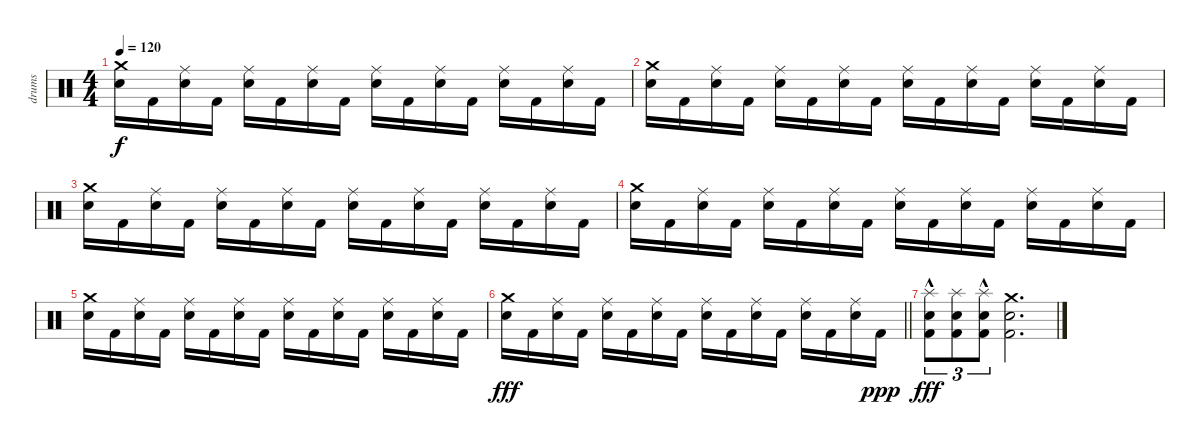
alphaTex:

\track ("drums" "drums") {instrument percussion}
\staff {score}
\articulation defaults
\ts (4 4)
\tempo 120
\clef neutral
\ks c
("Crash medium (hit)" "Snare (hit) 2").16{dy f} "Kick (hit) 2".16 ("Ride (middle)" "Snare (hit) 2").16 "Kick (hit) 2".16 ("Ride (middle)" "Snare (hit) 2").16 "Kick (hit) 2".16 ("Ride (middle)" "Snare (hit) 2").16 "Kick (hit) 2".16 ("Ride (middle)" "Snare (hit) 2").16 "Kick (hit) 2".16 ("Ride (middle)" "Snare (hit) 2").16 "Kick (hit) 2".16 ("Ride (middle)" "Snare (hit) 2").16 "Kick (hit) 2".16 ("Ride (middle)" "Snare (hit) 2").16 "Kick (hit) 2".16 |
("Crash medium (hit)" "Snare (hit) 2").16 "Kick (hit) 2".16 ("Ride (middle)" "Snare (hit) 2").16 "Kick (hit) 2".16 ("Ride (middle)" "Snare (hit) 2").16 "Kick (hit) 2".16 ("Ride (middle)" "Snare (hit) 2").16 "Kick (hit) 2".16 ("Ride (middle)" "Snare (hit) 2").16 "Kick (hit) 2".16 ("Ride (middle)" "Snare (hit) 2").16 "Kick (hit) 2".16 ("Ride (middle)" "Snare (hit) 2").16 "Kick (hit) 2".16 ("Ride (middle)" "Snare (hit) 2").16 "Kick (hit) 2".16 |
("Crash medium (hit)" "Snare (hit) 2").16 "Kick (hit) 2".16 ("Ride (middle)" "Snare (hit) 2").16 "Kick (hit) 2".16 ("Ride (middle)" "Snare (hit) 2").16 "Kick (hit) 2".16 ("Ride (middle)" "Snare (hit) 2").16 "Kick (hit) 2".16 ("Ride (middle)" "Snare (hit) 2").16 "Kick (hit) 2".16 ("Ride (middle)" "Snare (hit) 2").16 "Kick (hit) 2".16 ("Ride (middle)" "Snare (hit) 2").16 "Kick (hit) 2".16 ("Ride (middle)" "Snare (hit) 2").16 "Kick (hit) 2".16 |
("Crash medium (hit)" "Snare (hit) 2").16 "Kick (hit) 2".16 ("Ride (middle)" "Snare (hit) 2").16 "Kick (hit) 2".16 ("Ride (middle)" "Snare (hit) 2").16 "Kick (hit) 2".16 ("Ride (middle)" "Snare (hit) 2").16 "Kick (hit) 2".16 ("Ride (middle)" "Snare (hit) 2").16 "Kick (hit) 2".16 ("Ride (middle)" "Snare (hit) 2").16 "Kick (hit) 2".16 ("Ride (middle)" "Snare (hit) 2").16 "Kick (hit) 2".16 ("Ride (middle)" "Snare (hit) 2").16 "Kick (hit) 2".16 |
("Crash medium (hit)" "Snare (hit) 2").16 "Kick (hit) 2".16 ("Ride (middle)" "Snare (hit) 2").16 "Kick (hit) 2".16 ("Ride (middle)" "Snare (hit) 2").16 "Kick (hit) 2".16 ("Ride (middle)" "Snare (hit) 2").16 "Kick (hit) 2".16 ("Ride (middle)" "Snare (hit) 2").16 "Kick (hit) 2".16 ("Ride (middle)" "Snare (hit) 2").16 "Kick (hit) 2".16 ("Ride (middle)" "Snare (hit) 2").16 "Kick (hit) 2".16 ("Ride (middle)" "Snare (hit) 2").16 "Kick (hit) 2".16 |
\barLineRight lightlight
("Crash medium (hit)" "Snare (hit) 2").16{dy fff} "Kick (hit) 2".16 ("Ride (middle)" "Snare (hit) 2").16 "Kick (hit) 2".16 ("Ride (middle)" "Snare (hit) 2").16 "Kick (hit) 2".16 ("Ride (middle)" "Snare (hit) 2").16 "Kick (hit) 2".16 ("Ride (middle)" "Snare (hit) 2").16 "Kick (hit) 2".16 ("Ride (middle)" "Snare (hit) 2").16 "Kick (hit) 2".16 ("Ride (middle)" "Snare (hit) 2").16 "Kick (hit) 2".16 ("Ride (middle)" "Snare (hit) 2").16 "Kick (hit) 2".16{dy ppp} |
("Splash (hit)"{hac} "Kick (hit) 2" "Snare (hit) 2").8{tu (3 2) dy fff} ("Splash (hit)" "Kick (hit) 2" "Snare (hit) 2").8{tu (3 2)} ("Splash (hit)"{hac} "Kick (hit) 2" "Snare (hit) 2").8{tu (3 2)} ("Snare (hit) 2" "Kick (hit) 2" "Crash medium (hit)").2{d}
